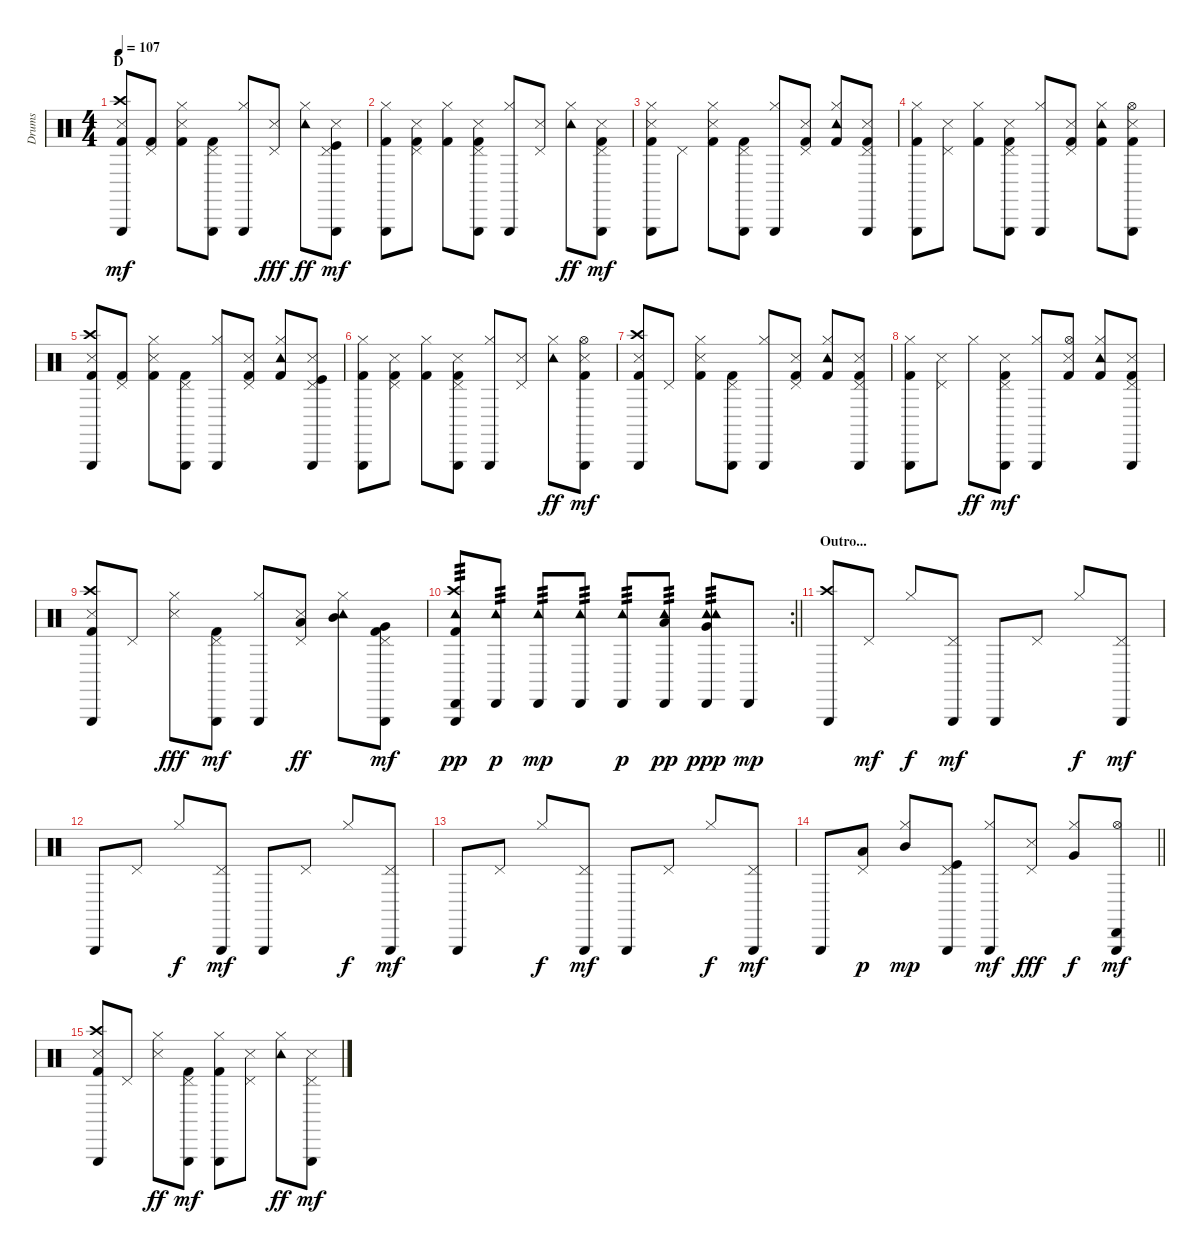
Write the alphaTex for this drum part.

\track ("Drums" "Drums") {instrument percussion}
\staff {score}
\articulation defaults
\ts (4 4)
\section ("" "D")
\tempo 107
\clef neutral
\ks c
("Crash high (hit)" "Snare (side stick) 3" "Kick (hit) 2" "Triangle (hit)").8{dy mf} ("Pedal Hi-Hat (hit)" "Kick (hit) 2").8 ("Hi-Hat (closed)" "Snare (side stick) 3" "Kick (hit) 2").8 ("Pedal Hi-Hat (hit)" "Kick (hit) 2" "Triangle (hit)").8 ("Hi-Hat (closed)" "Triangle (hit)").8 ("Pedal Hi-Hat (hit)" "Snare (side stick) 3").8{dy fff} ("Hi-Hat (closed)" "Tambourine (hit)").8{dy ff} ("Pedal Hi-Hat (hit)" "Snare (side stick) 3" "Kick (hit)" "Triangle (hit)").8{dy mf} |
("Hi-Hat (closed)" "Kick (hit) 2" "Triangle (hit)").8 ("Pedal Hi-Hat (hit)" "Snare (side stick) 3" "Kick (hit) 2").8 ("Hi-Hat (closed)" "Kick (hit) 2").8 ("Pedal Hi-Hat (hit)" "Snare (side stick) 3" "Kick (hit) 2" "Triangle (hit)").8 ("Hi-Hat (closed)" "Triangle (hit)").8 ("Pedal Hi-Hat (hit)" "Snare (side stick) 3").8 ("Hi-Hat (closed)" "Tambourine (hit)").8{dy ff} ("Pedal Hi-Hat (hit)" "Snare (side stick) 3" "Kick (hit) 2" "Triangle (hit)").8{dy mf} |
("Hi-Hat (closed)" "Snare (side stick) 3" "Kick (hit) 2" "Triangle (hit)").8 "Pedal Hi-Hat (hit)".8 ("Hi-Hat (closed)" "Snare (side stick) 3" "Kick (hit) 2").8 ("Pedal Hi-Hat (hit)" "Kick (hit) 2" "Triangle (hit)").8 ("Hi-Hat (closed)" "Triangle (hit)").8 ("Pedal Hi-Hat (hit)" "Snare (side stick) 3" "Kick (hit) 2").8 ("Hi-Hat (closed)" "Tambourine (hit)" "Kick (hit) 2").8 ("Pedal Hi-Hat (hit)" "Snare (side stick) 3" "Kick (hit) 2" "Triangle (hit)").8 |
("Hi-Hat (closed)" "Kick (hit) 2" "Triangle (hit)").8 ("Pedal Hi-Hat (hit)" "Snare (side stick) 3").8 ("Hi-Hat (closed)" "Kick (hit) 2").8 ("Pedal Hi-Hat (hit)" "Snare (side stick) 3" "Kick (hit) 2" "Triangle (hit)").8 ("Hi-Hat (closed)" "Triangle (hit)").8 ("Pedal Hi-Hat (hit)" "Snare (side stick) 3" "Kick (hit) 2").8 ("Hi-Hat (closed)" "Tambourine (hit)" "Kick (hit) 2").8 ("Hi-Hat (open)" "Snare (side stick) 3" "Kick (hit) 2" "Triangle (hit)").8 |
("Crash high (hit)" "Snare (side stick) 3" "Kick (hit) 2" "Triangle (hit)").8 ("Pedal Hi-Hat (hit)" "Kick (hit) 2").8 ("Hi-Hat (closed)" "Snare (side stick) 3" "Kick (hit) 2").8 ("Pedal Hi-Hat (hit)" "Kick (hit) 2" "Triangle (hit)").8 ("Hi-Hat (closed)" "Triangle (hit)").8 ("Pedal Hi-Hat (hit)" "Snare (side stick) 3" "Kick (hit) 2").8 ("Hi-Hat (closed)" "Tambourine (hit)" "Kick (hit) 2").8 ("Pedal Hi-Hat (hit)" "Snare (side stick) 3" "Kick (hit)" "Triangle (hit)").8 |
("Hi-Hat (closed)" "Kick (hit) 2" "Triangle (hit)").8 ("Pedal Hi-Hat (hit)" "Snare (side stick) 3" "Kick (hit) 2").8 ("Hi-Hat (closed)" "Kick (hit) 2").8 ("Pedal Hi-Hat (hit)" "Snare (side stick) 3" "Kick (hit) 2" "Triangle (hit)").8 ("Hi-Hat (closed)" "Triangle (hit)").8 ("Pedal Hi-Hat (hit)" "Snare (side stick) 3").8 ("Hi-Hat (closed)" "Tambourine (hit)").8{dy ff} ("Hi-Hat (open)" "Snare (side stick) 3" "Kick (hit) 2" "Triangle (hit)").8{dy mf} |
("Crash high (hit)" "Snare (side stick) 3" "Kick (hit) 2" "Triangle (hit)").8 "Pedal Hi-Hat (hit)".8 ("Hi-Hat (closed)" "Snare (side stick) 3" "Kick (hit) 2").8 ("Pedal Hi-Hat (hit)" "Kick (hit) 2" "Triangle (hit)").8 ("Hi-Hat (closed)" "Triangle (hit)").8 ("Pedal Hi-Hat (hit)" "Snare (side stick) 3" "Kick (hit) 2").8 ("Hi-Hat (closed)" "Tambourine (hit)" "Kick (hit) 2").8 ("Pedal Hi-Hat (hit)" "Snare (side stick) 3" "Kick (hit) 2" "Triangle (hit)").8 |
("Hi-Hat (closed)" "Kick (hit) 2" "Triangle (hit)").8 ("Pedal Hi-Hat (hit)" "Snare (side stick) 3").8 "Hi-Hat (closed)".8{dy ff} ("Pedal Hi-Hat (hit)" "Snare (side stick) 3" "Kick (hit) 2" "Triangle (hit)").8{dy mf} ("Hi-Hat (closed)" "Triangle (hit)").8 ("Hi-Hat (open)" "Snare (side stick) 3" "Kick (hit) 2").8 ("Hi-Hat (closed)" "Tambourine (hit)" "Kick (hit) 2").8 ("Pedal Hi-Hat (hit)" "Snare (side stick) 3" "Kick (hit) 2" "Triangle (hit)").8 |
("Crash high (hit)" "Snare (side stick) 3" "Kick (hit) 2" "Triangle (hit)").8 "Pedal Hi-Hat (hit)".8 ("Hi-Hat (closed)" "Snare (side stick) 3").8{dy fff} ("Pedal Hi-Hat (hit)" "Kick (hit) 2" "Triangle (hit)").8{dy mf} ("Hi-Hat (closed)" "Triangle (hit)").8 ("Pedal Hi-Hat (hit)" "Low Tom (hit)" "Snare (side stick) 3").8{dy ff} ("Hi-Hat (closed)" "Mid Tom (hit)" "Tambourine (hit)").8 ("Pedal Hi-Hat (hit)" "Very Low Tom (hit)" "Kick (hit) 2" "Triangle (hit)").8{dy mf} |
\rc 2
\barLineRight lightlight
("Cabasa (hit)" "Crash high (hit)" "Kick (hit) 2" "Triangle (hit)" "Tambourine (hit)").8{tp 3 dy pp} ("Cabasa (hit)" "Tambourine (hit)").8{tp 3 dy p} ("Cabasa (hit)" "Tambourine (hit)").8{tp 3 dy mp} ("Cabasa (hit)" "Tambourine (hit)").8{tp 3} ("Cabasa (hit)" "Tambourine (hit)").8{tp 3 dy p} ("Cabasa (hit)" "Low Tom (hit)" "Tambourine (hit)").8{tp 3 dy pp} ("Cabasa (hit)" "Very Low Tom (hit)" "Tambourine (hit)" "Tambourine (hit)").8{tp 3 dy ppp} "Cabasa (hit)".8{dy mp} |
\section ("" "Outro...")
("Triangle (hit)" "Crash high (hit)").8 "Pedal Hi-Hat (hit)".8{dy mf} "Hi-Hat (closed)".8{dy f} ("Pedal Hi-Hat (hit)" "Triangle (hit)").8{dy mf} "Triangle (hit)".8 "Pedal Hi-Hat (hit)".8 "Hi-Hat (closed)".8{dy f} ("Pedal Hi-Hat (hit)" "Triangle (hit)").8{dy mf} |
"Triangle (hit)".8 "Pedal Hi-Hat (hit)".8 "Hi-Hat (closed)".8{dy f} ("Pedal Hi-Hat (hit)" "Triangle (hit)").8{dy mf} "Triangle (hit)".8 "Pedal Hi-Hat (hit)".8 "Hi-Hat (closed)".8{dy f} ("Pedal Hi-Hat (hit)" "Triangle (hit)").8{dy mf} |
"Triangle (hit)".8 "Pedal Hi-Hat (hit)".8 "Hi-Hat (closed)".8{dy f} ("Pedal Hi-Hat (hit)" "Triangle (hit)").8{dy mf} "Triangle (hit)".8 "Pedal Hi-Hat (hit)".8 "Hi-Hat (closed)".8{dy f} ("Pedal Hi-Hat (hit)" "Triangle (hit)").8{dy mf} |
\barLineRight lightlight "Triangle (hit)".8
("Pedal Hi-Hat (hit)" "Low Tom (hit)").8{dy p} ("Hi-Hat (closed)" "Mid Tom (hit)").8{dy mp} ("Pedal Hi-Hat (hit)" "Triangle (hit)" "Kick (hit)").8 ("Triangle (hit)" "Hi-Hat (closed)").8{dy mf} ("Pedal Hi-Hat (hit)" "Snare (side stick) 3").8{dy fff} ("Hi-Hat (closed)" "Very Low Tom (hit)").8{dy f} ("Cabasa (hit)" "Triangle (hit)" "Hi-Hat (open)").8{dy mf} |
("Crash high (hit)" "Snare (side stick) 3" "Kick (hit) 2" "Triangle (hit)").8 "Pedal Hi-Hat (hit)".8 ("Hi-Hat (closed)" "Snare (side stick) 3").8{dy ff} ("Pedal Hi-Hat (hit)" "Kick (hit) 2" "Triangle (hit)").8{dy mf} ("Hi-Hat (closed)" "Kick (hit) 2" "Triangle (hit)").8 ("Pedal Hi-Hat (hit)" "Snare (side stick) 3").8 ("Hi-Hat (closed)" "Tambourine (hit)").8{dy ff} ("Pedal Hi-Hat (hit)" "Snare (side stick) 3" "Triangle (hit)").8{dy mf}
